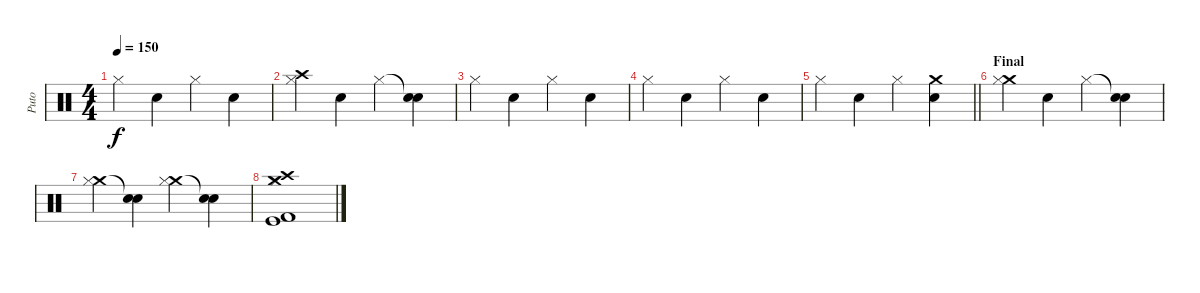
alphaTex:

\track ("Puto" "Puto") {instrument percussion}
\staff {score}
\articulation defaults
\ts (4 4)
\tempo 150
\clef neutral
\ks c "Hi-Hat (closed)".4{dy f} "Electric Snare (hit)".4 "Hi-Hat (closed)".4 "Electric Snare (hit)".4
|
("Crash high (hit)" "Hi-Hat (closed)").4 "Electric Snare (hit)".4 "Hi-Hat (closed)".4 ("Snare (hit)"{t} "Electric Snare (hit)").4 |
"Hi-Hat (closed)".4 "Electric Snare (hit)".4 "Hi-Hat (closed)".4 "Electric Snare (hit)".4 |
"Hi-Hat (closed)".4 "Electric Snare (hit)".4 "Hi-Hat (closed)".4 "Electric Snare (hit)".4 |
\barLineRight lightlight "Hi-Hat (closed)".4 "Electric Snare (hit)".4 "Hi-Hat (closed)".4
("Crash medium (hit)" "Electric Snare (hit)").4 |
\section ("" "Final")
("Crash medium (hit)" "Hi-Hat (closed)").4 "Electric Snare (hit)".4 "Hi-Hat (closed)".4 ("Snare (hit)"{t} "Electric Snare (hit)").4 |
("Crash medium (hit)" "Hi-Hat (closed)").4 ("Snare (hit)"{t} "Electric Snare (hit)").4 ("Crash medium (hit)" "Hi-Hat (closed)").4 ("Snare (hit)"{t} "Electric Snare (hit)").4 |
("Crash high (hit)" "Crash medium (hit)" "Kick (hit)" "Kick (hit) 2" "Hi-Hat (closed)").1
